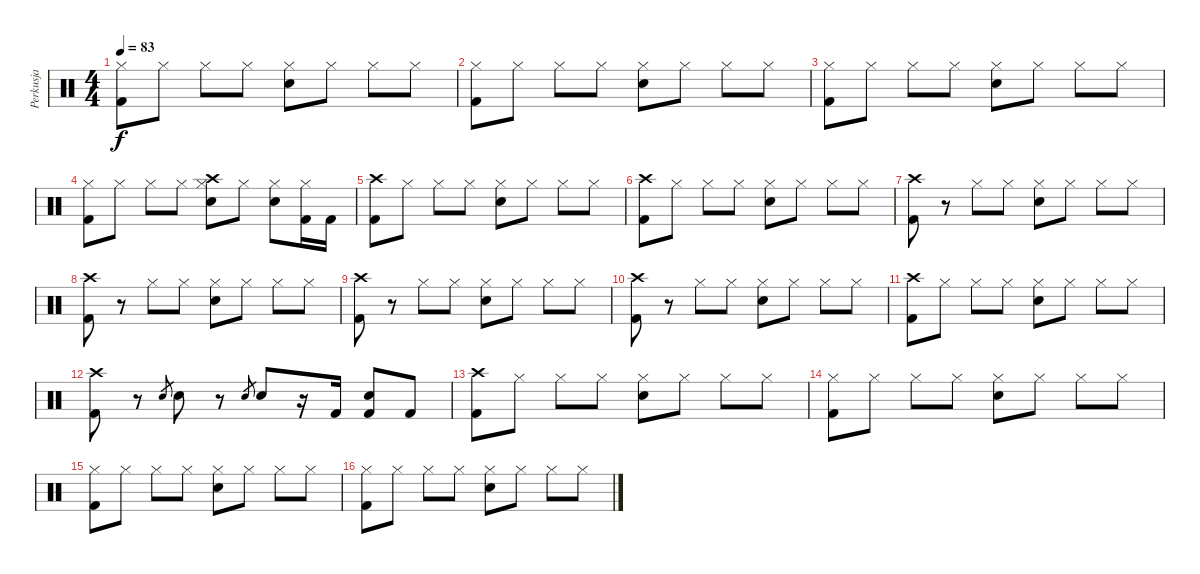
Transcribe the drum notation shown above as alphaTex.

\track ("Perkusja" "Perkusja") {instrument percussion}
\staff {score}
\articulation defaults
\ts (4 4)
\tempo 83
\clef neutral
\ks c
("Hi-Hat (closed)" "Kick (hit) 2").8{dy f} "Hi-Hat (closed)".8 "Hi-Hat (closed)".8 "Hi-Hat (closed)".8 ("Hi-Hat (closed)" "Snare (hit) 2").8 "Hi-Hat (closed)".8 "Hi-Hat (closed)".8 "Hi-Hat (closed)".8 |
("Hi-Hat (closed)" "Kick (hit) 2").8 "Hi-Hat (closed)".8 "Hi-Hat (closed)".8 "Hi-Hat (closed)".8 ("Hi-Hat (closed)" "Snare (hit) 2").8 "Hi-Hat (closed)".8 "Hi-Hat (closed)".8 "Hi-Hat (closed)".8 |
("Hi-Hat (closed)" "Kick (hit) 2").8 "Hi-Hat (closed)".8 "Hi-Hat (closed)".8 "Hi-Hat (closed)".8 ("Hi-Hat (closed)" "Snare (hit) 2").8 "Hi-Hat (closed)".8 "Hi-Hat (closed)".8 "Hi-Hat (closed)".8 |
("Hi-Hat (closed)" "Kick (hit) 2").8 "Hi-Hat (closed)".8 "Hi-Hat (closed)".8 "Hi-Hat (closed)".8 ("Hi-Hat (closed)" "Crash high (hit)" "Snare (hit) 2").8 "Hi-Hat (closed)".8 ("Hi-Hat (closed)" "Snare (hit) 2").8 ("Hi-Hat (closed)" "Kick (hit) 2").16 "Kick (hit) 2".16 |
("Crash high (hit)" "Kick (hit) 2").8 "Hi-Hat (closed)".8 "Hi-Hat (closed)".8 "Hi-Hat (closed)".8 ("Hi-Hat (closed)" "Snare (hit) 2").8 "Hi-Hat (closed)".8 "Hi-Hat (closed)".8 "Hi-Hat (closed)".8 |
("Crash high (hit)" "Kick (hit) 2").8 "Hi-Hat (closed)".8 "Hi-Hat (closed)".8 "Hi-Hat (closed)".8 ("Hi-Hat (closed)" "Snare (hit) 2").8 "Hi-Hat (closed)".8 "Hi-Hat (closed)".8 "Hi-Hat (closed)".8 |
("Crash high (hit)" "Kick (hit) 2").8 r.8 "Hi-Hat (closed)".8 "Hi-Hat (closed)".8 ("Hi-Hat (closed)" "Snare (hit) 2").8 "Hi-Hat (closed)".8 "Hi-Hat (closed)".8 "Hi-Hat (closed)".8 |
("Crash high (hit)" "Kick (hit) 2").8 r.8 "Hi-Hat (closed)".8 "Hi-Hat (closed)".8 ("Hi-Hat (closed)" "Snare (hit) 2").8 "Hi-Hat (closed)".8 "Hi-Hat (closed)".8 "Hi-Hat (closed)".8 |
("Crash high (hit)" "Kick (hit) 2").8 r.8 "Hi-Hat (closed)".8 "Hi-Hat (closed)".8 ("Hi-Hat (closed)" "Snare (hit) 2").8 "Hi-Hat (closed)".8 "Hi-Hat (closed)".8 "Hi-Hat (closed)".8 |
("Crash high (hit)" "Kick (hit) 2").8 r.8 "Hi-Hat (closed)".8 "Hi-Hat (closed)".8 ("Hi-Hat (closed)" "Snare (hit) 2").8 "Hi-Hat (closed)".8 "Hi-Hat (closed)".8 "Hi-Hat (closed)".8 |
("Crash high (hit)" "Kick (hit) 2").8 "Hi-Hat (closed)".8 "Hi-Hat (closed)".8 "Hi-Hat (closed)".8 ("Hi-Hat (closed)" "Snare (hit) 2").8 "Hi-Hat (closed)".8 "Hi-Hat (closed)".8 "Hi-Hat (closed)".8 |
("Crash high (hit)" "Kick (hit) 2").8 r.8 "Snare (hit) 2".8{gr} "Snare (hit) 2".8 r.8 "Snare (hit) 2".8{gr} "Snare (hit) 2".8 r.16 "Kick (hit) 2".16 ("Snare (hit) 2" "Kick (hit) 2").8 "Kick (hit) 2".8 |
("Crash high (hit)" "Kick (hit) 2").8 "Hi-Hat (closed)".8 "Hi-Hat (closed)".8 "Hi-Hat (closed)".8 ("Hi-Hat (closed)" "Snare (hit) 2").8 "Hi-Hat (closed)".8 "Hi-Hat (closed)".8 "Hi-Hat (closed)".8 |
("Hi-Hat (closed)" "Kick (hit) 2").8 "Hi-Hat (closed)".8 "Hi-Hat (closed)".8 "Hi-Hat (closed)".8 ("Hi-Hat (closed)" "Snare (hit) 2").8 "Hi-Hat (closed)".8 "Hi-Hat (closed)".8 "Hi-Hat (closed)".8 |
("Hi-Hat (closed)" "Kick (hit) 2").8 "Hi-Hat (closed)".8 "Hi-Hat (closed)".8 "Hi-Hat (closed)".8 ("Hi-Hat (closed)" "Snare (hit) 2").8 "Hi-Hat (closed)".8 "Hi-Hat (closed)".8 "Hi-Hat (closed)".8 |
("Hi-Hat (closed)" "Kick (hit) 2").8 "Hi-Hat (closed)".8 "Hi-Hat (closed)".8 "Hi-Hat (closed)".8 ("Hi-Hat (closed)" "Snare (hit) 2").8 "Hi-Hat (closed)".8 "Hi-Hat (closed)".8 "Hi-Hat (closed)".8
